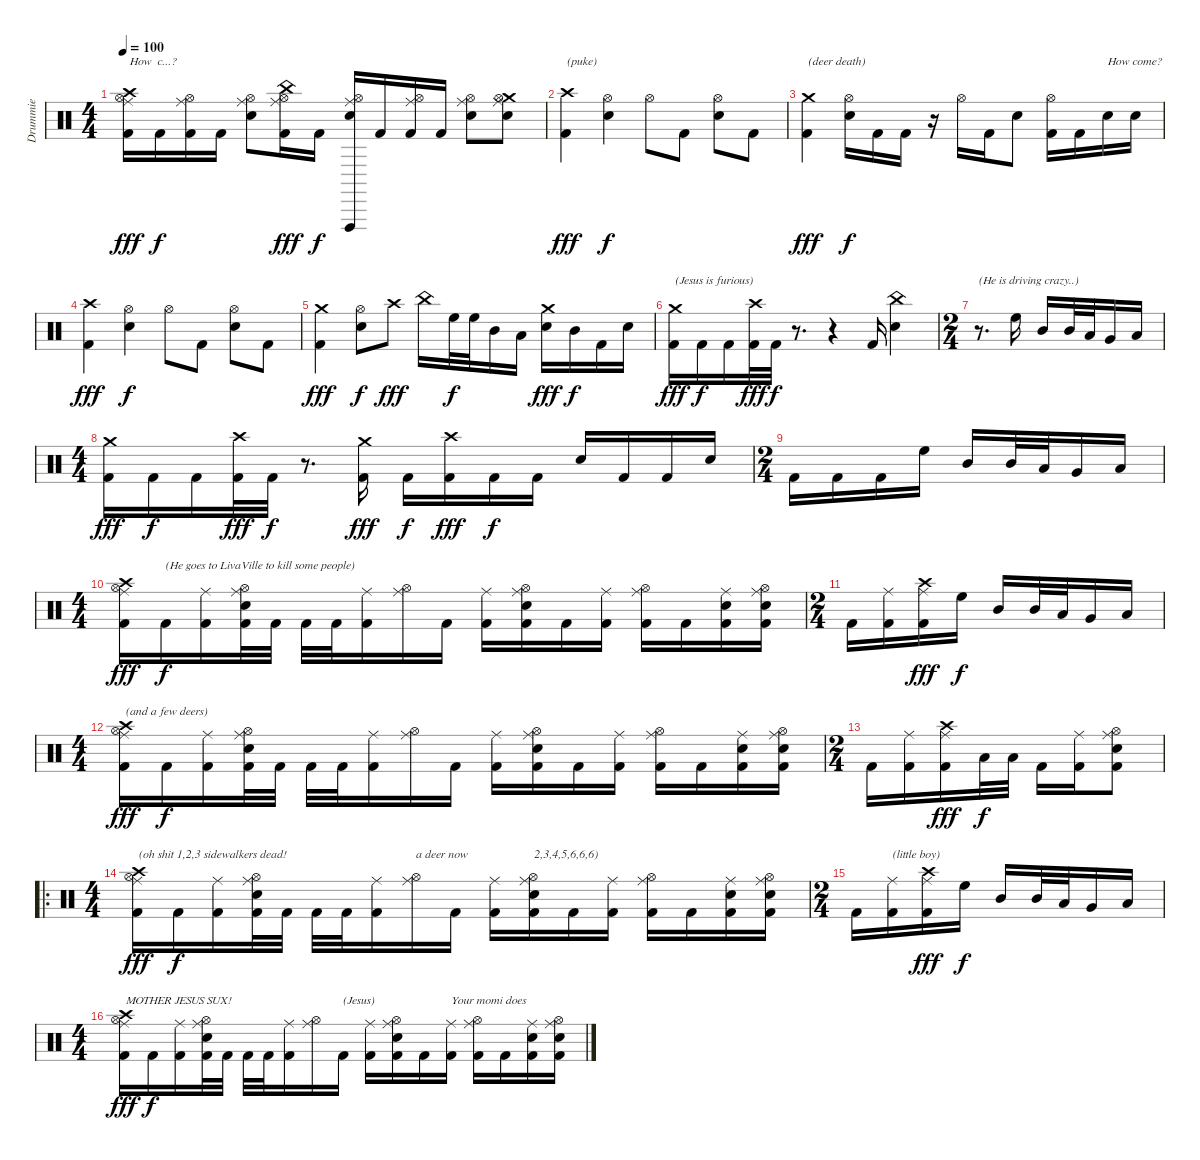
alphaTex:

\track ("Drummie" "Drummie") {instrument percussion}
\staff {score}
\articulation defaults
\ts (4 4)
\tempo 100
\clef neutral
\ks c
("Ride (middle)" "Crash high (hit)" "Hi-Hat (open)" "Kick (hit) 2").16{txt "How  c...?" dy fff} "Kick (hit) 2".16{dy f} ("Ride (middle)" "Hi-Hat (open)" "Kick (hit) 2").16 "Kick (hit) 2".16 ("Ride (middle)" "Hi-Hat (open)" "Electric Snare (hit)").8 ("Ride (middle)" "China (hit)" "Hi-Hat (open)" "Kick (hit) 2").16{dy fff} "Kick (hit) 2".16{dy f} ("Ride (middle)" "Vibraslap (hit)" "Hi-Hat (open)" "Electric Snare (hit)").16 "Kick (hit) 2".16 ("Ride (middle)" "Hi-Hat (open)" "Kick (hit) 2").16 "Kick (hit) 2".16 ("Ride (middle)" "Hi-Hat (open)" "Electric Snare (hit)").8 ("Ride (middle)" "Crash medium (hit)" "Hi-Hat (open)" "Electric Snare (hit)").8 |
("Crash high (hit)" "Kick (hit) 2").4{txt "(puke)" dy fff} ("Hi-Hat (open)" "Electric Snare (hit)").4{dy f} "Hi-Hat (open)".8 "Kick (hit) 2".8 ("Hi-Hat (open)" "Electric Snare (hit)").8 "Kick (hit) 2".8 |
("Crash medium (hit)" "Kick (hit) 2").4{txt "(deer death)" dy fff} ("Hi-Hat (open)" "Electric Snare (hit)").16{dy f} "Kick (hit) 2".16 "Kick (hit) 2".16 r.16 "Hi-Hat (open)".16 "Kick (hit) 2".16 "Electric Snare (hit)".8 ("Hi-Hat (open)" "Kick (hit) 2").16 "Kick (hit) 2".16 "Electric Snare (hit)".16{txt "How come?"} "Electric Snare (hit)".16 |
("Crash high (hit)" "Kick (hit) 2").4{dy fff} ("Hi-Hat (open)" "Electric Snare (hit)").4{dy f} "Hi-Hat (open)".8 "Kick (hit) 2".8 ("Hi-Hat (open)" "Electric Snare (hit)").8 "Kick (hit) 2".8 |
("Crash medium (hit)" "Kick (hit) 2").4{dy fff} ("Hi-Hat (open)" "Electric Snare (hit)").8{dy f} "Crash high (hit)".8{dy fff} "China (hit)".16 "High Floor Tom (hit)".32{dy f} "High Floor Tom (hit)".32 "Mid Tom (hit)".16 "Low Tom (hit)".16 ("Crash medium (hit)" "Electric Snare (hit)").16{dy fff} "Mid Tom (hit)".16{dy f} "Kick (hit) 2".16 "Electric Snare (hit)".16 |
("Crash medium (hit)" "Kick (hit) 2").16{txt "(Jesus is furious)" dy fff} "Kick (hit) 2".16{dy f} "Kick (hit) 2".16 ("Crash high (hit)" "Kick (hit) 2").32{dy fff} "Kick (hit) 2".32{dy f} r.8{d} r.4 "Kick (hit) 2".16 ("China (hit)" "Electric Snare (hit)").4 |
\ts (2 4)
r.8{d txt "(He is driving crazy..)"} "High Floor Tom (hit)".16 "Mid Tom (hit)".16 "Mid Tom (hit)".32 "Low Tom (hit)".32 "Very Low Tom (hit)".16 "Low Floor Tom (hit)".16 |
\ts (4 4)
("Crash medium (hit)" "Kick (hit) 2").16{dy fff} "Kick (hit) 2".16{dy f} "Kick (hit) 2".16 ("Crash high (hit)" "Kick (hit) 2").32{dy fff} "Kick (hit) 2".32{dy f} r.8{d} ("Crash medium (hit)" "Kick (hit) 2").16{dy fff} "Kick (hit) 2".16{dy f} ("Crash high (hit)" "Kick (hit) 2").16{dy fff} "Kick (hit) 2".16{dy f} "Kick (hit) 2".16 "Electric Snare (hit)".16 "Kick (hit) 2".16 "Kick (hit) 2".16 "Electric Snare (hit)".16 |
\ts (2 4)
"Kick (hit) 2".16 "Kick (hit) 2".16 "Kick (hit) 2".16 "High Floor Tom (hit)".16 "Mid Tom (hit)".16 "Mid Tom (hit)".32 "Low Tom (hit)".32 "Very Low Tom (hit)".16 "Low Floor Tom (hit)".16 |
\ts (4 4)
("Ride (middle)" "Crash high (hit)" "Hi-Hat (open)" "Kick (hit) 2").16{dy fff} "Kick (hit) 2".16{txt "(He goes to LivaVille to kill some people)" dy f} ("Ride (middle)" "Kick (hit) 2").16 ("Ride (middle)" "Hi-Hat (open)" "Electric Snare (hit)" "Kick (hit) 2").32 "Kick (hit) 2".32 "Kick (hit) 2".32 "Kick (hit) 2".32 ("Ride (middle)" "Kick (hit) 2").16 ("Ride (middle)" "Hi-Hat (open)").16 "Kick (hit) 2".16 ("Ride (middle)" "Kick (hit) 2").16 ("Ride (middle)" "Hi-Hat (open)" "Electric Snare (hit)" "Kick (hit) 2").16 "Kick (hit) 2".16 ("Ride (middle)" "Kick (hit) 2").16 ("Ride (middle)" "Hi-Hat (open)" "Kick (hit) 2").16 "Kick (hit) 2".16 ("Ride (middle)" "Electric Snare (hit)" "Kick (hit) 2").16 ("Ride (middle)" "Hi-Hat (open)" "Electric Snare (hit)" "Kick (hit) 2").16 |
\ts (2 4)
"Kick (hit) 2".16 ("Ride (middle)" "Kick (hit) 2").16 ("Ride (middle)" "Crash high (hit)" "Kick (hit) 2").16{dy fff} "High Floor Tom (hit)".16{dy f} "Mid Tom (hit)".16 "Mid Tom (hit)".32 "Low Tom (hit)".32 "Very Low Tom (hit)".16 "Low Floor Tom (hit)".16 |
\ts (4 4)
("Ride (middle)" "Crash high (hit)" "Hi-Hat (open)" "Kick (hit) 2").16{txt "(and a few deers)" dy fff} "Kick (hit) 2".16{dy f} ("Ride (middle)" "Kick (hit) 2").16 ("Ride (middle)" "Hi-Hat (open)" "Electric Snare (hit)" "Kick (hit) 2").32 "Kick (hit) 2".32 "Kick (hit) 2".32 "Kick (hit) 2".32 ("Ride (middle)" "Kick (hit) 2").16 ("Ride (middle)" "Hi-Hat (open)").16 "Kick (hit) 2".16 ("Ride (middle)" "Kick (hit) 2").16 ("Ride (middle)" "Hi-Hat (open)" "Electric Snare (hit)" "Kick (hit) 2").16 "Kick (hit) 2".16 ("Ride (middle)" "Kick (hit) 2").16 ("Ride (middle)" "Hi-Hat (open)" "Kick (hit) 2").16 "Kick (hit) 2".16 ("Ride (middle)" "Electric Snare (hit)" "Kick (hit) 2").16 ("Ride (middle)" "Hi-Hat (open)" "Electric Snare (hit)" "Kick (hit) 2").16 |
\ts (2 4)
"Kick (hit) 2".16 ("Ride (middle)" "Kick (hit) 2").16 ("Ride (middle)" "Crash high (hit)" "Kick (hit) 2").16{dy fff} "Low Tom (hit)".32{dy f} "Low Tom (hit)".32 "Kick (hit) 2".16 ("Ride (middle)" "Kick (hit) 2").16 ("Ride (middle)" "Hi-Hat (open)" "Electric Snare (hit)" "Kick (hit) 2").8 |
\ro
\ts (4 4)
("Ride (middle)" "Crash high (hit)" "Hi-Hat (open)" "Kick (hit) 2").16{txt "(oh shit 1,2,3 sidewalkers dead!" dy fff} "Kick (hit) 2".16{dy f} ("Ride (middle)" "Kick (hit) 2").16 ("Ride (middle)" "Hi-Hat (open)" "Electric Snare (hit)" "Kick (hit) 2").32 "Kick (hit) 2".32 "Kick (hit) 2".32 "Kick (hit) 2".32 ("Ride (middle)" "Kick (hit) 2").16 ("Ride (middle)" "Hi-Hat (open)").16{txt "a deer now"} "Kick (hit) 2".16 ("Ride (middle)" "Kick (hit) 2").16 ("Ride (middle)" "Hi-Hat (open)" "Electric Snare (hit)" "Kick (hit) 2").16{txt "2,3,4,5,6,6,6)"} "Kick (hit) 2".16 ("Ride (middle)" "Kick (hit) 2").16 ("Ride (middle)" "Hi-Hat (open)" "Kick (hit) 2").16 "Kick (hit) 2".16 ("Ride (middle)" "Electric Snare (hit)" "Kick (hit) 2").16 ("Ride (middle)" "Hi-Hat (open)" "Electric Snare (hit)" "Kick (hit) 2").16 |
\ts (2 4)
"Kick (hit) 2".16 ("Ride (middle)" "Kick (hit) 2").16{txt "(little boy)"} ("Ride (middle)" "Crash high (hit)" "Kick (hit) 2").16{dy fff} "High Floor Tom (hit)".16{dy f} "Mid Tom (hit)".16 "Mid Tom (hit)".32 "Low Tom (hit)".32 "Very Low Tom (hit)".16 "Low Floor Tom (hit)".16 |
\ts (4 4)
("Ride (middle)" "Crash high (hit)" "Hi-Hat (open)" "Kick (hit) 2").16{txt "MOTHER JESUS SUX!" dy fff} "Kick (hit) 2".16{dy f} ("Ride (middle)" "Kick (hit) 2").16 ("Ride (middle)" "Hi-Hat (open)" "Electric Snare (hit)" "Kick (hit) 2").32 "Kick (hit) 2".32 "Kick (hit) 2".32 "Kick (hit) 2".32 ("Ride (middle)" "Kick (hit) 2").16 ("Ride (middle)" "Hi-Hat (open)").16 "Kick (hit) 2".16{txt "(Jesus)"} ("Ride (middle)" "Kick (hit) 2").16 ("Ride (middle)" "Hi-Hat (open)" "Electric Snare (hit)" "Kick (hit) 2").16 "Kick (hit) 2".16 ("Ride (middle)" "Kick (hit) 2").16{txt "Your momi does"} ("Ride (middle)" "Hi-Hat (open)" "Kick (hit) 2").16 "Kick (hit) 2".16 ("Ride (middle)" "Electric Snare (hit)" "Kick (hit) 2").16 ("Ride (middle)" "Hi-Hat (open)" "Electric Snare (hit)" "Kick (hit) 2").16
